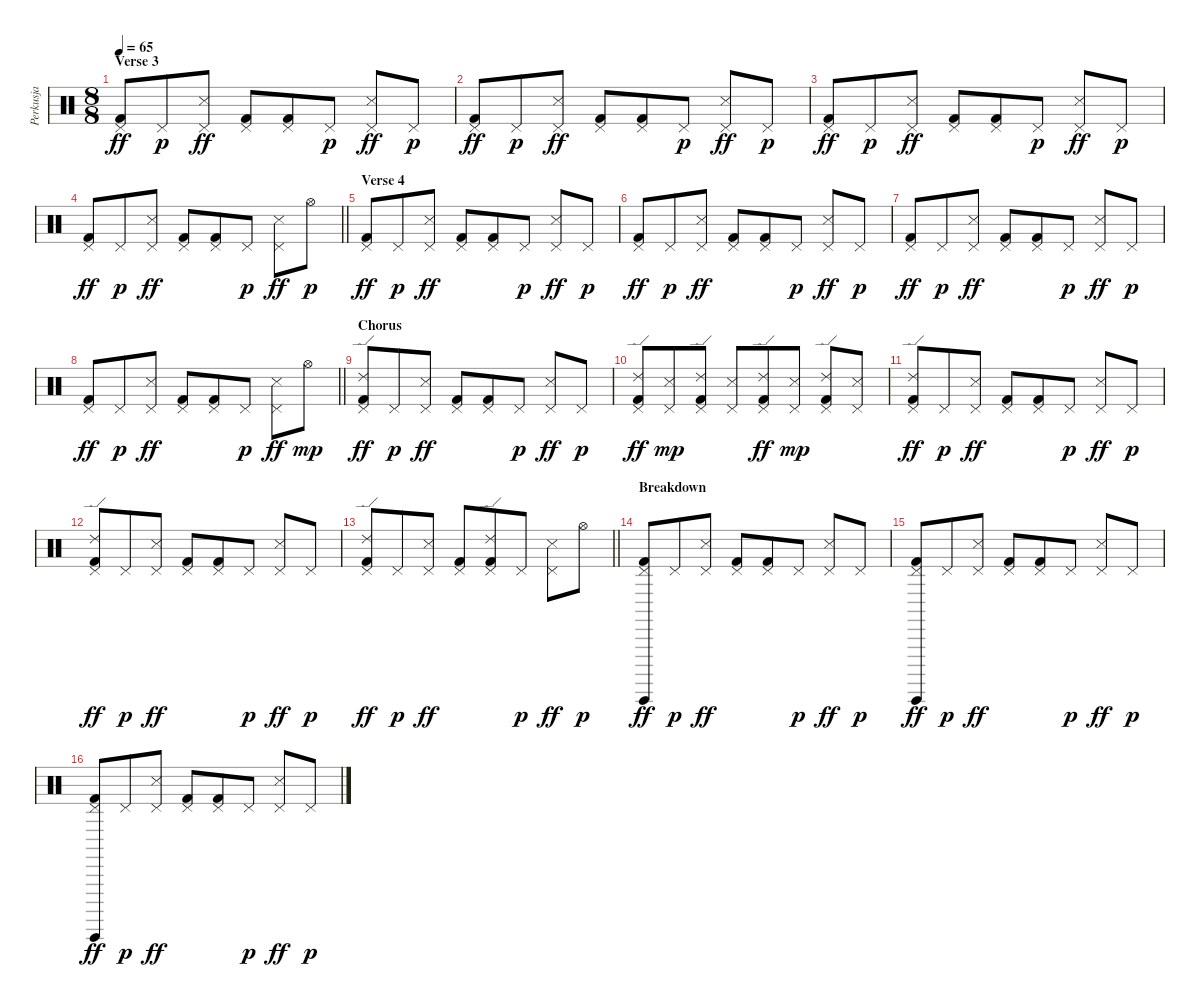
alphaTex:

\track ("Perkusja" "Perkusja") {solo instrument percussion}
\staff {score}
\articulation defaults
\ts (8 8)
\section ("" "Verse 3")
\tempo 65
\clef neutral
\ks c
("Pedal Hi-Hat (hit)" "Kick (hit) 2").8{dy ff} "Pedal Hi-Hat (hit)".8{dy p} ("Pedal Hi-Hat (hit)" "Snare (side stick) 3").8{dy ff} ("Pedal Hi-Hat (hit)" "Kick (hit) 2").8 ("Pedal Hi-Hat (hit)" "Kick (hit) 2").8 "Pedal Hi-Hat (hit)".8{dy p} ("Pedal Hi-Hat (hit)" "Snare (side stick) 3").8{dy ff} "Pedal Hi-Hat (hit)".8{dy p} |
("Pedal Hi-Hat (hit)" "Kick (hit) 2").8{dy ff} "Pedal Hi-Hat (hit)".8{dy p} ("Pedal Hi-Hat (hit)" "Snare (side stick) 3").8{dy ff} ("Pedal Hi-Hat (hit)" "Kick (hit) 2").8 ("Pedal Hi-Hat (hit)" "Kick (hit) 2").8 "Pedal Hi-Hat (hit)".8{dy p} ("Pedal Hi-Hat (hit)" "Snare (side stick) 3").8{dy ff} "Pedal Hi-Hat (hit)".8{dy p} |
("Pedal Hi-Hat (hit)" "Kick (hit) 2").8{dy ff} "Pedal Hi-Hat (hit)".8{dy p} ("Pedal Hi-Hat (hit)" "Snare (side stick) 3").8{dy ff} ("Pedal Hi-Hat (hit)" "Kick (hit) 2").8 ("Pedal Hi-Hat (hit)" "Kick (hit) 2").8 "Pedal Hi-Hat (hit)".8{dy p} ("Pedal Hi-Hat (hit)" "Snare (side stick) 3").8{dy ff} "Pedal Hi-Hat (hit)".8{dy p} |
\barLineRight lightlight
("Pedal Hi-Hat (hit)" "Kick (hit) 2").8{dy ff} "Pedal Hi-Hat (hit)".8{dy p} ("Pedal Hi-Hat (hit)" "Snare (side stick) 3").8{dy ff} ("Pedal Hi-Hat (hit)" "Kick (hit) 2").8 ("Pedal Hi-Hat (hit)" "Kick (hit) 2").8 "Pedal Hi-Hat (hit)".8{dy p} ("Pedal Hi-Hat (hit)" "Snare (side stick) 3").8{dy ff} "Hi-Hat (open)".8{dy p} |
\section ("" "Verse 4")
("Pedal Hi-Hat (hit)" "Kick (hit) 2").8{dy ff} "Pedal Hi-Hat (hit)".8{dy p} ("Pedal Hi-Hat (hit)" "Snare (side stick) 3").8{dy ff} ("Pedal Hi-Hat (hit)" "Kick (hit) 2").8 ("Pedal Hi-Hat (hit)" "Kick (hit) 2").8 "Pedal Hi-Hat (hit)".8{dy p} ("Pedal Hi-Hat (hit)" "Snare (side stick) 3").8{dy ff} "Pedal Hi-Hat (hit)".8{dy p} |
("Pedal Hi-Hat (hit)" "Kick (hit) 2").8{dy ff} "Pedal Hi-Hat (hit)".8{dy p} ("Pedal Hi-Hat (hit)" "Snare (side stick) 3").8{dy ff} ("Pedal Hi-Hat (hit)" "Kick (hit) 2").8 ("Pedal Hi-Hat (hit)" "Kick (hit) 2").8 "Pedal Hi-Hat (hit)".8{dy p} ("Pedal Hi-Hat (hit)" "Snare (side stick) 3").8{dy ff} "Pedal Hi-Hat (hit)".8{dy p} |
("Pedal Hi-Hat (hit)" "Kick (hit) 2").8{dy ff} "Pedal Hi-Hat (hit)".8{dy p} ("Pedal Hi-Hat (hit)" "Snare (side stick) 3").8{dy ff} ("Pedal Hi-Hat (hit)" "Kick (hit) 2").8 ("Pedal Hi-Hat (hit)" "Kick (hit) 2").8 "Pedal Hi-Hat (hit)".8{dy p} ("Pedal Hi-Hat (hit)" "Snare (side stick) 3").8{dy ff} "Pedal Hi-Hat (hit)".8{dy p} |
\barLineRight lightlight
("Pedal Hi-Hat (hit)" "Kick (hit) 2").8{dy ff} "Pedal Hi-Hat (hit)".8{dy p} ("Pedal Hi-Hat (hit)" "Snare (side stick) 3").8{dy ff} ("Pedal Hi-Hat (hit)" "Kick (hit) 2").8 ("Pedal Hi-Hat (hit)" "Kick (hit) 2").8 "Pedal Hi-Hat (hit)".8{dy p} ("Pedal Hi-Hat (hit)" "Snare (side stick) 3").8{dy ff} "Hi-Hat (open)".8{dy mp} |
\section ("" "Chorus")
("Pedal Hi-Hat (hit)" "Ride (edge) 2" "Kick (hit) 2").8{dy ff} "Pedal Hi-Hat (hit)".8{dy p} ("Pedal Hi-Hat (hit)" "Snare (side stick) 3").8{dy ff} ("Pedal Hi-Hat (hit)" "Kick (hit) 2").8 ("Pedal Hi-Hat (hit)" "Kick (hit) 2").8 "Pedal Hi-Hat (hit)".8{dy p} ("Pedal Hi-Hat (hit)" "Snare (side stick) 3").8{dy ff} "Pedal Hi-Hat (hit)".8{dy p} |
("Pedal Hi-Hat (hit)" "Ride (edge) 2" "Kick (hit) 2").8{dy ff} ("Pedal Hi-Hat (hit)" "Snare (side stick) 3").8{dy mp} ("Pedal Hi-Hat (hit)" "Ride (edge) 2" "Kick (hit) 2").8 ("Pedal Hi-Hat (hit)" "Snare (side stick) 3").8 ("Pedal Hi-Hat (hit)" "Ride (edge) 2" "Kick (hit) 2").8{dy ff} ("Pedal Hi-Hat (hit)" "Snare (side stick) 3").8{dy mp} ("Pedal Hi-Hat (hit)" "Ride (edge) 2" "Kick (hit) 2").8 ("Pedal Hi-Hat (hit)" "Snare (side stick) 3").8 |
("Pedal Hi-Hat (hit)" "Ride (edge) 2" "Kick (hit) 2").8{dy ff} "Pedal Hi-Hat (hit)".8{dy p} ("Pedal Hi-Hat (hit)" "Snare (side stick) 3").8{dy ff} ("Pedal Hi-Hat (hit)" "Kick (hit) 2").8 ("Pedal Hi-Hat (hit)" "Kick (hit) 2").8 "Pedal Hi-Hat (hit)".8{dy p} ("Pedal Hi-Hat (hit)" "Snare (side stick) 3").8{dy ff} "Pedal Hi-Hat (hit)".8{dy p} |
("Pedal Hi-Hat (hit)" "Ride (edge) 2" "Kick (hit) 2").8{dy ff} "Pedal Hi-Hat (hit)".8{dy p} ("Pedal Hi-Hat (hit)" "Snare (side stick) 3").8{dy ff} ("Pedal Hi-Hat (hit)" "Kick (hit) 2").8 ("Pedal Hi-Hat (hit)" "Kick (hit) 2").8 "Pedal Hi-Hat (hit)".8{dy p} ("Pedal Hi-Hat (hit)" "Snare (side stick) 3").8{dy ff} "Pedal Hi-Hat (hit)".8{dy p} |
\barLineRight lightlight
("Pedal Hi-Hat (hit)" "Ride (edge) 2" "Kick (hit) 2").8{dy ff} "Pedal Hi-Hat (hit)".8{dy p} ("Pedal Hi-Hat (hit)" "Snare (side stick) 3").8{dy ff} ("Pedal Hi-Hat (hit)" "Kick (hit) 2").8 ("Pedal Hi-Hat (hit)" "Ride (edge) 2" "Kick (hit) 2").8 "Pedal Hi-Hat (hit)".8{dy p} ("Pedal Hi-Hat (hit)" "Snare (side stick) 3").8{dy ff} "Hi-Hat (open)".8{dy p} |
\section ("" "Breakdown")
("Pedal Hi-Hat (hit)" "Guiro (hit)" "Kick (hit) 2").8{dy ff} "Pedal Hi-Hat (hit)".8{dy p} ("Pedal Hi-Hat (hit)" "Snare (side stick) 3").8{dy ff} ("Pedal Hi-Hat (hit)" "Kick (hit) 2").8 ("Pedal Hi-Hat (hit)" "Kick (hit) 2").8 "Pedal Hi-Hat (hit)".8{dy p} ("Pedal Hi-Hat (hit)" "Snare (side stick) 3").8{dy ff} "Pedal Hi-Hat (hit)".8{dy p} |
("Pedal Hi-Hat (hit)" "Guiro (hit)" "Kick (hit) 2").8{dy ff} "Pedal Hi-Hat (hit)".8{dy p} ("Pedal Hi-Hat (hit)" "Snare (side stick) 3").8{dy ff} ("Pedal Hi-Hat (hit)" "Kick (hit) 2").8 ("Pedal Hi-Hat (hit)" "Kick (hit) 2").8 "Pedal Hi-Hat (hit)".8{dy p} ("Pedal Hi-Hat (hit)" "Snare (side stick) 3").8{dy ff} "Pedal Hi-Hat (hit)".8{dy p} |
("Pedal Hi-Hat (hit)" "Guiro (hit)" "Kick (hit) 2").8{dy ff} "Pedal Hi-Hat (hit)".8{dy p} ("Pedal Hi-Hat (hit)" "Snare (side stick) 3").8{dy ff} ("Pedal Hi-Hat (hit)" "Kick (hit) 2").8 ("Pedal Hi-Hat (hit)" "Kick (hit) 2").8 "Pedal Hi-Hat (hit)".8{dy p} ("Pedal Hi-Hat (hit)" "Snare (side stick) 3").8{dy ff} "Pedal Hi-Hat (hit)".8{dy p}
